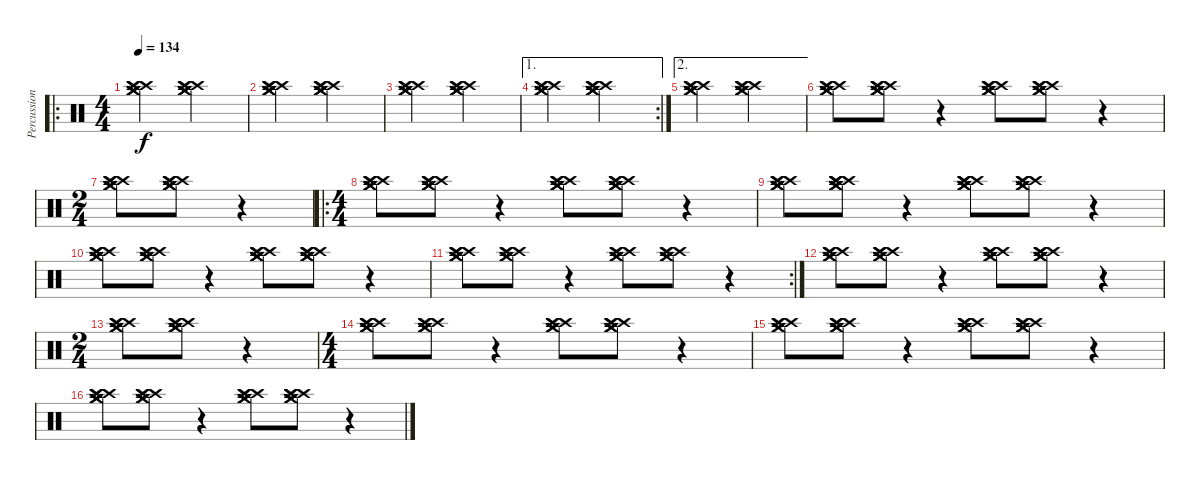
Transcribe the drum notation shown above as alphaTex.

\track ("Percussion 2" "Percussion") {instrument percussion}
\staff {score}
\articulation defaults
\ro
\ts (4 4)
\tempo 134
\clef neutral
\ks c
("Crash medium (hit)" "Crash medium (hit)" "Crash medium (hit)" "Crash high (hit)" "Crash high (hit)" "Crash high (hit)").2{dy f} ("Crash medium (hit)" "Crash medium (hit)" "Crash medium (hit)" "Crash high (hit)" "Crash high (hit)" "Crash high (hit)").2 |
("Crash medium (hit)" "Crash medium (hit)" "Crash medium (hit)" "Crash high (hit)" "Crash high (hit)" "Crash high (hit)").2 ("Crash medium (hit)" "Crash medium (hit)" "Crash medium (hit)" "Crash high (hit)" "Crash high (hit)" "Crash high (hit)").2 |
("Crash medium (hit)" "Crash medium (hit)" "Crash medium (hit)" "Crash high (hit)" "Crash high (hit)" "Crash high (hit)").2 ("Crash medium (hit)" "Crash medium (hit)" "Crash medium (hit)" "Crash high (hit)" "Crash high (hit)" "Crash high (hit)").2 |
\ae 1
\rc 2
("Crash medium (hit)" "Crash medium (hit)" "Crash medium (hit)" "Crash high (hit)" "Crash high (hit)" "Crash high (hit)").2 ("Crash medium (hit)" "Crash medium (hit)" "Crash medium (hit)" "Crash high (hit)" "Crash high (hit)" "Crash high (hit)").2 |
\ae 2
("Crash medium (hit)" "Crash medium (hit)" "Crash medium (hit)" "Crash high (hit)" "Crash high (hit)" "Crash high (hit)").2 ("Crash medium (hit)" "Crash medium (hit)" "Crash medium (hit)" "Crash high (hit)" "Crash high (hit)" "Crash high (hit)").2 |
("Crash medium (hit)" "Crash medium (hit)" "Crash medium (hit)" "Crash high (hit)" "Crash high (hit)" "Crash high (hit)").8 ("Crash medium (hit)" "Crash medium (hit)" "Crash medium (hit)" "Crash high (hit)" "Crash high (hit)" "Crash high (hit)").8 r.4 ("Crash medium (hit)" "Crash medium (hit)" "Crash medium (hit)" "Crash high (hit)" "Crash high (hit)" "Crash high (hit)").8 ("Crash medium (hit)" "Crash medium (hit)" "Crash medium (hit)" "Crash high (hit)" "Crash high (hit)" "Crash high (hit)").8 r.4 |
\ts (2 4)
("Crash medium (hit)" "Crash medium (hit)" "Crash medium (hit)" "Crash high (hit)" "Crash high (hit)" "Crash high (hit)").8 ("Crash medium (hit)" "Crash medium (hit)" "Crash medium (hit)" "Crash high (hit)" "Crash high (hit)" "Crash high (hit)").8 r.4 |
\ro
\ts (4 4)
("Crash medium (hit)" "Crash medium (hit)" "Crash medium (hit)" "Crash high (hit)" "Crash high (hit)" "Crash high (hit)").8 ("Crash medium (hit)" "Crash medium (hit)" "Crash medium (hit)" "Crash high (hit)" "Crash high (hit)" "Crash high (hit)").8 r.4 ("Crash medium (hit)" "Crash medium (hit)" "Crash medium (hit)" "Crash high (hit)" "Crash high (hit)" "Crash high (hit)").8 ("Crash medium (hit)" "Crash medium (hit)" "Crash medium (hit)" "Crash high (hit)" "Crash high (hit)" "Crash high (hit)").8 r.4 |
("Crash medium (hit)" "Crash medium (hit)" "Crash medium (hit)" "Crash high (hit)" "Crash high (hit)" "Crash high (hit)").8 ("Crash medium (hit)" "Crash medium (hit)" "Crash medium (hit)" "Crash high (hit)" "Crash high (hit)" "Crash high (hit)").8 r.4 ("Crash medium (hit)" "Crash medium (hit)" "Crash medium (hit)" "Crash high (hit)" "Crash high (hit)" "Crash high (hit)").8 ("Crash medium (hit)" "Crash medium (hit)" "Crash medium (hit)" "Crash high (hit)" "Crash high (hit)" "Crash high (hit)").8 r.4 |
("Crash medium (hit)" "Crash medium (hit)" "Crash medium (hit)" "Crash high (hit)" "Crash high (hit)" "Crash high (hit)").8 ("Crash medium (hit)" "Crash medium (hit)" "Crash medium (hit)" "Crash high (hit)" "Crash high (hit)" "Crash high (hit)").8 r.4 ("Crash medium (hit)" "Crash medium (hit)" "Crash medium (hit)" "Crash high (hit)" "Crash high (hit)" "Crash high (hit)").8 ("Crash medium (hit)" "Crash medium (hit)" "Crash medium (hit)" "Crash high (hit)" "Crash high (hit)" "Crash high (hit)").8 r.4 |
\rc 2
("Crash medium (hit)" "Crash medium (hit)" "Crash medium (hit)" "Crash high (hit)" "Crash high (hit)" "Crash high (hit)").8 ("Crash medium (hit)" "Crash medium (hit)" "Crash medium (hit)" "Crash high (hit)" "Crash high (hit)" "Crash high (hit)").8 r.4 ("Crash medium (hit)" "Crash medium (hit)" "Crash medium (hit)" "Crash high (hit)" "Crash high (hit)" "Crash high (hit)").8 ("Crash medium (hit)" "Crash medium (hit)" "Crash medium (hit)" "Crash high (hit)" "Crash high (hit)" "Crash high (hit)").8 r.4 |
("Crash medium (hit)" "Crash medium (hit)" "Crash medium (hit)" "Crash high (hit)" "Crash high (hit)" "Crash high (hit)").8 ("Crash medium (hit)" "Crash medium (hit)" "Crash medium (hit)" "Crash high (hit)" "Crash high (hit)" "Crash high (hit)").8 r.4 ("Crash medium (hit)" "Crash medium (hit)" "Crash medium (hit)" "Crash high (hit)" "Crash high (hit)" "Crash high (hit)").8 ("Crash medium (hit)" "Crash medium (hit)" "Crash medium (hit)" "Crash high (hit)" "Crash high (hit)" "Crash high (hit)").8 r.4 |
\ts (2 4)
("Crash medium (hit)" "Crash medium (hit)" "Crash medium (hit)" "Crash high (hit)" "Crash high (hit)" "Crash high (hit)").8 ("Crash medium (hit)" "Crash medium (hit)" "Crash medium (hit)" "Crash high (hit)" "Crash high (hit)" "Crash high (hit)").8 r.4 |
\ts (4 4)
("Crash medium (hit)" "Crash medium (hit)" "Crash medium (hit)" "Crash high (hit)" "Crash high (hit)" "Crash high (hit)").8 ("Crash medium (hit)" "Crash medium (hit)" "Crash medium (hit)" "Crash high (hit)" "Crash high (hit)" "Crash high (hit)").8 r.4 ("Crash medium (hit)" "Crash medium (hit)" "Crash medium (hit)" "Crash high (hit)" "Crash high (hit)" "Crash high (hit)").8 ("Crash medium (hit)" "Crash medium (hit)" "Crash medium (hit)" "Crash high (hit)" "Crash high (hit)" "Crash high (hit)").8 r.4 |
("Crash medium (hit)" "Crash medium (hit)" "Crash medium (hit)" "Crash high (hit)" "Crash high (hit)" "Crash high (hit)").8 ("Crash medium (hit)" "Crash medium (hit)" "Crash medium (hit)" "Crash high (hit)" "Crash high (hit)" "Crash high (hit)").8 r.4 ("Crash medium (hit)" "Crash medium (hit)" "Crash medium (hit)" "Crash high (hit)" "Crash high (hit)" "Crash high (hit)").8 ("Crash medium (hit)" "Crash medium (hit)" "Crash medium (hit)" "Crash high (hit)" "Crash high (hit)" "Crash high (hit)").8 r.4 |
("Crash medium (hit)" "Crash medium (hit)" "Crash medium (hit)" "Crash high (hit)" "Crash high (hit)" "Crash high (hit)").8 ("Crash medium (hit)" "Crash medium (hit)" "Crash medium (hit)" "Crash high (hit)" "Crash high (hit)" "Crash high (hit)").8 r.4 ("Crash medium (hit)" "Crash medium (hit)" "Crash medium (hit)" "Crash high (hit)" "Crash high (hit)" "Crash high (hit)").8 ("Crash medium (hit)" "Crash medium (hit)" "Crash medium (hit)" "Crash high (hit)" "Crash high (hit)" "Crash high (hit)").8 r.4
